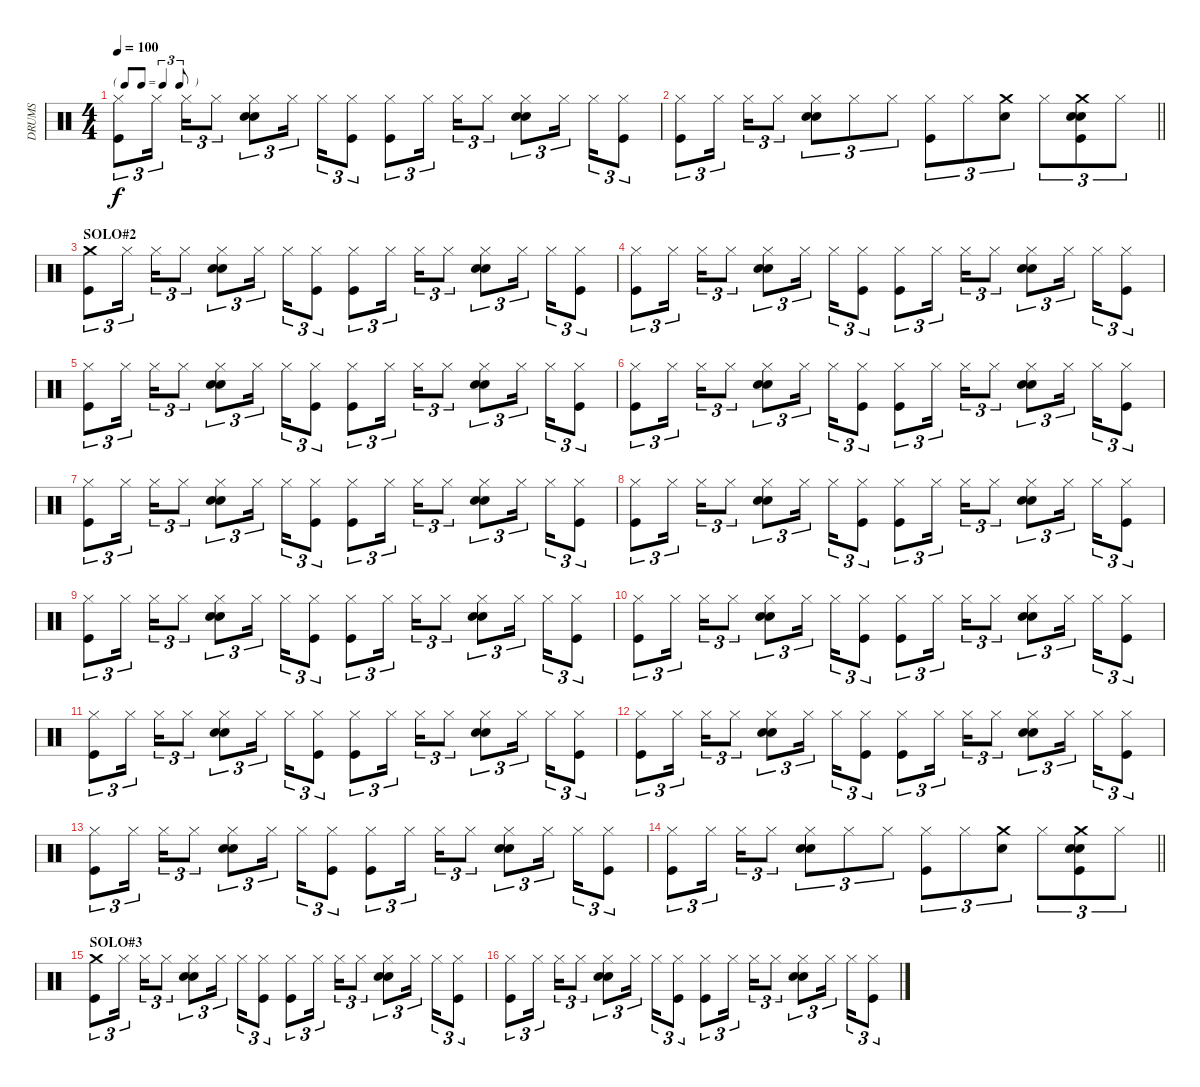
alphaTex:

\track ("DRUMS" "DRUMS") {instrument percussion}
\staff {score}
\articulation defaults
\ts (4 4)
\tf triplet8th
\tempo 100
\clef neutral
\ks c
("Kick (hit)" "Hi-Hat (closed)").8{tu (3 2) dy f} "Hi-Hat (closed)".16{tu (3 2) beam splitsecondary} "Hi-Hat (closed)".16{tu (3 2)} "Hi-Hat (closed)".8{tu (3 2)} ("Hand Clap (hit)" "Electric Snare (hit)" "Hi-Hat (closed)").8{tu (3 2)} "Hi-Hat (closed)".16{tu (3 2) beam splitsecondary} "Hi-Hat (closed)".16{tu (3 2)} ("Kick (hit)" "Hi-Hat (closed)").8{tu (3 2)} ("Kick (hit)" "Hi-Hat (closed)").8{tu (3 2)} "Hi-Hat (closed)".16{tu (3 2) beam splitsecondary} "Hi-Hat (closed)".16{tu (3 2)} "Hi-Hat (closed)".8{tu (3 2)} ("Hand Clap (hit)" "Electric Snare (hit)" "Hi-Hat (closed)").8{tu (3 2)} "Hi-Hat (closed)".16{tu (3 2) beam splitsecondary} "Hi-Hat (closed)".16{tu (3 2)} ("Kick (hit)" "Hi-Hat (closed)").8{tu (3 2)} |
\barLineRight lightlight
("Kick (hit)" "Hi-Hat (closed)").8{tu (3 2)} "Hi-Hat (closed)".16{tu (3 2) beam splitsecondary} "Hi-Hat (closed)".16{tu (3 2)} "Hi-Hat (closed)".8{tu (3 2)} ("Hand Clap (hit)" "Electric Snare (hit)" "Hi-Hat (closed)").8{tu (3 2)} "Hi-Hat (closed)".8{tu (3 2)} "Hi-Hat (closed)".8{tu (3 2)} ("Kick (hit)" "Hi-Hat (closed)").8{tu (3 2)} "Hi-Hat (closed)".8{tu (3 2)} ("Electric Snare (hit)" "Crash medium (hit)").8{tu (3 2)} "Hi-Hat (closed)".8{tu (3 2)} ("Hand Clap (hit)" "Kick (hit)" "Electric Snare (hit)" "Crash medium (hit)").8{tu (3 2)} "Hi-Hat (closed)".8{tu (3 2)} |
\section ("" "SOLO#2")
("Kick (hit)" "Crash medium (hit)").8{tu (3 2)} "Hi-Hat (closed)".16{tu (3 2) beam splitsecondary} "Hi-Hat (closed)".16{tu (3 2)} "Hi-Hat (closed)".8{tu (3 2)} ("Hand Clap (hit)" "Electric Snare (hit)" "Hi-Hat (closed)").8{tu (3 2)} "Hi-Hat (closed)".16{tu (3 2) beam splitsecondary} "Hi-Hat (closed)".16{tu (3 2)} ("Kick (hit)" "Hi-Hat (closed)").8{tu (3 2)} ("Kick (hit)" "Hi-Hat (closed)").8{tu (3 2)} "Hi-Hat (closed)".16{tu (3 2) beam splitsecondary} "Hi-Hat (closed)".16{tu (3 2)} "Hi-Hat (closed)".8{tu (3 2)} ("Hand Clap (hit)" "Electric Snare (hit)" "Hi-Hat (closed)").8{tu (3 2)} "Hi-Hat (closed)".16{tu (3 2) beam splitsecondary} "Hi-Hat (closed)".16{tu (3 2)} ("Kick (hit)" "Hi-Hat (closed)").8{tu (3 2)} |
("Kick (hit)" "Hi-Hat (closed)").8{tu (3 2)} "Hi-Hat (closed)".16{tu (3 2) beam splitsecondary} "Hi-Hat (closed)".16{tu (3 2)} "Hi-Hat (closed)".8{tu (3 2)} ("Hand Clap (hit)" "Electric Snare (hit)" "Hi-Hat (closed)").8{tu (3 2)} "Hi-Hat (closed)".16{tu (3 2) beam splitsecondary} "Hi-Hat (closed)".16{tu (3 2)} ("Kick (hit)" "Hi-Hat (closed)").8{tu (3 2)} ("Kick (hit)" "Hi-Hat (closed)").8{tu (3 2)} "Hi-Hat (closed)".16{tu (3 2) beam splitsecondary} "Hi-Hat (closed)".16{tu (3 2)} "Hi-Hat (closed)".8{tu (3 2)} ("Hand Clap (hit)" "Electric Snare (hit)" "Hi-Hat (closed)").8{tu (3 2)} "Hi-Hat (closed)".16{tu (3 2) beam splitsecondary} "Hi-Hat (closed)".16{tu (3 2)} ("Kick (hit)" "Hi-Hat (closed)").8{tu (3 2)} |
("Kick (hit)" "Hi-Hat (closed)").8{tu (3 2)} "Hi-Hat (closed)".16{tu (3 2) beam splitsecondary} "Hi-Hat (closed)".16{tu (3 2)} "Hi-Hat (closed)".8{tu (3 2)} ("Hand Clap (hit)" "Electric Snare (hit)" "Hi-Hat (closed)").8{tu (3 2)} "Hi-Hat (closed)".16{tu (3 2) beam splitsecondary} "Hi-Hat (closed)".16{tu (3 2)} ("Kick (hit)" "Hi-Hat (closed)").8{tu (3 2)} ("Kick (hit)" "Hi-Hat (closed)").8{tu (3 2)} "Hi-Hat (closed)".16{tu (3 2) beam splitsecondary} "Hi-Hat (closed)".16{tu (3 2)} "Hi-Hat (closed)".8{tu (3 2)} ("Hand Clap (hit)" "Electric Snare (hit)" "Hi-Hat (closed)").8{tu (3 2)} "Hi-Hat (closed)".16{tu (3 2) beam splitsecondary} "Hi-Hat (closed)".16{tu (3 2)} ("Kick (hit)" "Hi-Hat (closed)").8{tu (3 2)} |
("Kick (hit)" "Hi-Hat (closed)").8{tu (3 2)} "Hi-Hat (closed)".16{tu (3 2) beam splitsecondary} "Hi-Hat (closed)".16{tu (3 2)} "Hi-Hat (closed)".8{tu (3 2)} ("Hand Clap (hit)" "Electric Snare (hit)" "Hi-Hat (closed)").8{tu (3 2)} "Hi-Hat (closed)".16{tu (3 2) beam splitsecondary} "Hi-Hat (closed)".16{tu (3 2)} ("Kick (hit)" "Hi-Hat (closed)").8{tu (3 2)} ("Kick (hit)" "Hi-Hat (closed)").8{tu (3 2)} "Hi-Hat (closed)".16{tu (3 2) beam splitsecondary} "Hi-Hat (closed)".16{tu (3 2)} "Hi-Hat (closed)".8{tu (3 2)} ("Hand Clap (hit)" "Electric Snare (hit)" "Hi-Hat (closed)").8{tu (3 2)} "Hi-Hat (closed)".16{tu (3 2) beam splitsecondary} "Hi-Hat (closed)".16{tu (3 2)} ("Kick (hit)" "Hi-Hat (closed)").8{tu (3 2)} |
("Kick (hit)" "Hi-Hat (closed)").8{tu (3 2)} "Hi-Hat (closed)".16{tu (3 2) beam splitsecondary} "Hi-Hat (closed)".16{tu (3 2)} "Hi-Hat (closed)".8{tu (3 2)} ("Hand Clap (hit)" "Electric Snare (hit)" "Hi-Hat (closed)").8{tu (3 2)} "Hi-Hat (closed)".16{tu (3 2) beam splitsecondary} "Hi-Hat (closed)".16{tu (3 2)} ("Kick (hit)" "Hi-Hat (closed)").8{tu (3 2)} ("Kick (hit)" "Hi-Hat (closed)").8{tu (3 2)} "Hi-Hat (closed)".16{tu (3 2) beam splitsecondary} "Hi-Hat (closed)".16{tu (3 2)} "Hi-Hat (closed)".8{tu (3 2)} ("Hand Clap (hit)" "Electric Snare (hit)" "Hi-Hat (closed)").8{tu (3 2)} "Hi-Hat (closed)".16{tu (3 2) beam splitsecondary} "Hi-Hat (closed)".16{tu (3 2)} ("Kick (hit)" "Hi-Hat (closed)").8{tu (3 2)} |
("Kick (hit)" "Hi-Hat (closed)").8{tu (3 2)} "Hi-Hat (closed)".16{tu (3 2) beam splitsecondary} "Hi-Hat (closed)".16{tu (3 2)} "Hi-Hat (closed)".8{tu (3 2)} ("Hand Clap (hit)" "Electric Snare (hit)" "Hi-Hat (closed)").8{tu (3 2)} "Hi-Hat (closed)".16{tu (3 2) beam splitsecondary} "Hi-Hat (closed)".16{tu (3 2)} ("Kick (hit)" "Hi-Hat (closed)").8{tu (3 2)} ("Kick (hit)" "Hi-Hat (closed)").8{tu (3 2)} "Hi-Hat (closed)".16{tu (3 2) beam splitsecondary} "Hi-Hat (closed)".16{tu (3 2)} "Hi-Hat (closed)".8{tu (3 2)} ("Hand Clap (hit)" "Electric Snare (hit)" "Hi-Hat (closed)").8{tu (3 2)} "Hi-Hat (closed)".16{tu (3 2) beam splitsecondary} "Hi-Hat (closed)".16{tu (3 2)} ("Kick (hit)" "Hi-Hat (closed)").8{tu (3 2)} |
("Kick (hit)" "Hi-Hat (closed)").8{tu (3 2)} "Hi-Hat (closed)".16{tu (3 2) beam splitsecondary} "Hi-Hat (closed)".16{tu (3 2)} "Hi-Hat (closed)".8{tu (3 2)} ("Hand Clap (hit)" "Electric Snare (hit)" "Hi-Hat (closed)").8{tu (3 2)} "Hi-Hat (closed)".16{tu (3 2) beam splitsecondary} "Hi-Hat (closed)".16{tu (3 2)} ("Kick (hit)" "Hi-Hat (closed)").8{tu (3 2)} ("Kick (hit)" "Hi-Hat (closed)").8{tu (3 2)} "Hi-Hat (closed)".16{tu (3 2) beam splitsecondary} "Hi-Hat (closed)".16{tu (3 2)} "Hi-Hat (closed)".8{tu (3 2)} ("Hand Clap (hit)" "Electric Snare (hit)" "Hi-Hat (closed)").8{tu (3 2)} "Hi-Hat (closed)".16{tu (3 2) beam splitsecondary} "Hi-Hat (closed)".16{tu (3 2)} ("Kick (hit)" "Hi-Hat (closed)").8{tu (3 2)} |
("Kick (hit)" "Hi-Hat (closed)").8{tu (3 2)} "Hi-Hat (closed)".16{tu (3 2) beam splitsecondary} "Hi-Hat (closed)".16{tu (3 2)} "Hi-Hat (closed)".8{tu (3 2)} ("Hand Clap (hit)" "Electric Snare (hit)" "Hi-Hat (closed)").8{tu (3 2)} "Hi-Hat (closed)".16{tu (3 2) beam splitsecondary} "Hi-Hat (closed)".16{tu (3 2)} ("Kick (hit)" "Hi-Hat (closed)").8{tu (3 2)} ("Kick (hit)" "Hi-Hat (closed)").8{tu (3 2)} "Hi-Hat (closed)".16{tu (3 2) beam splitsecondary} "Hi-Hat (closed)".16{tu (3 2)} "Hi-Hat (closed)".8{tu (3 2)} ("Hand Clap (hit)" "Electric Snare (hit)" "Hi-Hat (closed)").8{tu (3 2)} "Hi-Hat (closed)".16{tu (3 2) beam splitsecondary} "Hi-Hat (closed)".16{tu (3 2)} ("Kick (hit)" "Hi-Hat (closed)").8{tu (3 2)} |
("Kick (hit)" "Hi-Hat (closed)").8{tu (3 2)} "Hi-Hat (closed)".16{tu (3 2) beam splitsecondary} "Hi-Hat (closed)".16{tu (3 2)} "Hi-Hat (closed)".8{tu (3 2)} ("Hand Clap (hit)" "Electric Snare (hit)" "Hi-Hat (closed)").8{tu (3 2)} "Hi-Hat (closed)".16{tu (3 2) beam splitsecondary} "Hi-Hat (closed)".16{tu (3 2)} ("Kick (hit)" "Hi-Hat (closed)").8{tu (3 2)} ("Kick (hit)" "Hi-Hat (closed)").8{tu (3 2)} "Hi-Hat (closed)".16{tu (3 2) beam splitsecondary} "Hi-Hat (closed)".16{tu (3 2)} "Hi-Hat (closed)".8{tu (3 2)} ("Hand Clap (hit)" "Electric Snare (hit)" "Hi-Hat (closed)").8{tu (3 2)} "Hi-Hat (closed)".16{tu (3 2) beam splitsecondary} "Hi-Hat (closed)".16{tu (3 2)} ("Kick (hit)" "Hi-Hat (closed)").8{tu (3 2)} |
("Kick (hit)" "Hi-Hat (closed)").8{tu (3 2)} "Hi-Hat (closed)".16{tu (3 2) beam splitsecondary} "Hi-Hat (closed)".16{tu (3 2)} "Hi-Hat (closed)".8{tu (3 2)} ("Hand Clap (hit)" "Electric Snare (hit)" "Hi-Hat (closed)").8{tu (3 2)} "Hi-Hat (closed)".16{tu (3 2) beam splitsecondary} "Hi-Hat (closed)".16{tu (3 2)} ("Kick (hit)" "Hi-Hat (closed)").8{tu (3 2)} ("Kick (hit)" "Hi-Hat (closed)").8{tu (3 2)} "Hi-Hat (closed)".16{tu (3 2) beam splitsecondary} "Hi-Hat (closed)".16{tu (3 2)} "Hi-Hat (closed)".8{tu (3 2)} ("Hand Clap (hit)" "Electric Snare (hit)" "Hi-Hat (closed)").8{tu (3 2)} "Hi-Hat (closed)".16{tu (3 2) beam splitsecondary} "Hi-Hat (closed)".16{tu (3 2)} ("Kick (hit)" "Hi-Hat (closed)").8{tu (3 2)} |
("Kick (hit)" "Hi-Hat (closed)").8{tu (3 2)} "Hi-Hat (closed)".16{tu (3 2) beam splitsecondary} "Hi-Hat (closed)".16{tu (3 2)} "Hi-Hat (closed)".8{tu (3 2)} ("Hand Clap (hit)" "Electric Snare (hit)" "Hi-Hat (closed)").8{tu (3 2)} "Hi-Hat (closed)".16{tu (3 2) beam splitsecondary} "Hi-Hat (closed)".16{tu (3 2)} ("Kick (hit)" "Hi-Hat (closed)").8{tu (3 2)} ("Kick (hit)" "Hi-Hat (closed)").8{tu (3 2)} "Hi-Hat (closed)".16{tu (3 2) beam splitsecondary} "Hi-Hat (closed)".16{tu (3 2)} "Hi-Hat (closed)".8{tu (3 2)} ("Hand Clap (hit)" "Electric Snare (hit)" "Hi-Hat (closed)").8{tu (3 2)} "Hi-Hat (closed)".16{tu (3 2) beam splitsecondary} "Hi-Hat (closed)".16{tu (3 2)} ("Kick (hit)" "Hi-Hat (closed)").8{tu (3 2)} |
\barLineRight lightlight
("Kick (hit)" "Hi-Hat (closed)").8{tu (3 2)} "Hi-Hat (closed)".16{tu (3 2) beam splitsecondary} "Hi-Hat (closed)".16{tu (3 2)} "Hi-Hat (closed)".8{tu (3 2)} ("Hand Clap (hit)" "Electric Snare (hit)" "Hi-Hat (closed)").8{tu (3 2)} "Hi-Hat (closed)".8{tu (3 2)} "Hi-Hat (closed)".8{tu (3 2)} ("Kick (hit)" "Hi-Hat (closed)").8{tu (3 2)} "Hi-Hat (closed)".8{tu (3 2)} ("Electric Snare (hit)" "Crash medium (hit)").8{tu (3 2)} "Hi-Hat (closed)".8{tu (3 2)} ("Hand Clap (hit)" "Kick (hit)" "Electric Snare (hit)" "Crash medium (hit)").8{tu (3 2)} "Hi-Hat (closed)".8{tu (3 2)} |
\section ("" "SOLO#3")
("Kick (hit)" "Crash medium (hit)").8{tu (3 2)} "Hi-Hat (closed)".16{tu (3 2) beam splitsecondary} "Hi-Hat (closed)".16{tu (3 2)} "Hi-Hat (closed)".8{tu (3 2)} ("Hand Clap (hit)" "Electric Snare (hit)" "Hi-Hat (closed)").8{tu (3 2)} "Hi-Hat (closed)".16{tu (3 2) beam splitsecondary} "Hi-Hat (closed)".16{tu (3 2)} ("Kick (hit)" "Hi-Hat (closed)").8{tu (3 2)} ("Kick (hit)" "Hi-Hat (closed)").8{tu (3 2)} "Hi-Hat (closed)".16{tu (3 2) beam splitsecondary} "Hi-Hat (closed)".16{tu (3 2)} "Hi-Hat (closed)".8{tu (3 2)} ("Hand Clap (hit)" "Electric Snare (hit)" "Hi-Hat (closed)").8{tu (3 2)} "Hi-Hat (closed)".16{tu (3 2) beam splitsecondary} "Hi-Hat (closed)".16{tu (3 2)} ("Kick (hit)" "Hi-Hat (closed)").8{tu (3 2)} |
("Kick (hit)" "Hi-Hat (closed)").8{tu (3 2)} "Hi-Hat (closed)".16{tu (3 2) beam splitsecondary} "Hi-Hat (closed)".16{tu (3 2)} "Hi-Hat (closed)".8{tu (3 2)} ("Hand Clap (hit)" "Electric Snare (hit)" "Hi-Hat (closed)").8{tu (3 2)} "Hi-Hat (closed)".16{tu (3 2) beam splitsecondary} "Hi-Hat (closed)".16{tu (3 2)} ("Kick (hit)" "Hi-Hat (closed)").8{tu (3 2)} ("Kick (hit)" "Hi-Hat (closed)").8{tu (3 2)} "Hi-Hat (closed)".16{tu (3 2) beam splitsecondary} "Hi-Hat (closed)".16{tu (3 2)} "Hi-Hat (closed)".8{tu (3 2)} ("Hand Clap (hit)" "Electric Snare (hit)" "Hi-Hat (closed)").8{tu (3 2)} "Hi-Hat (closed)".16{tu (3 2) beam splitsecondary} "Hi-Hat (closed)".16{tu (3 2)} ("Kick (hit)" "Hi-Hat (closed)").8{tu (3 2)}
